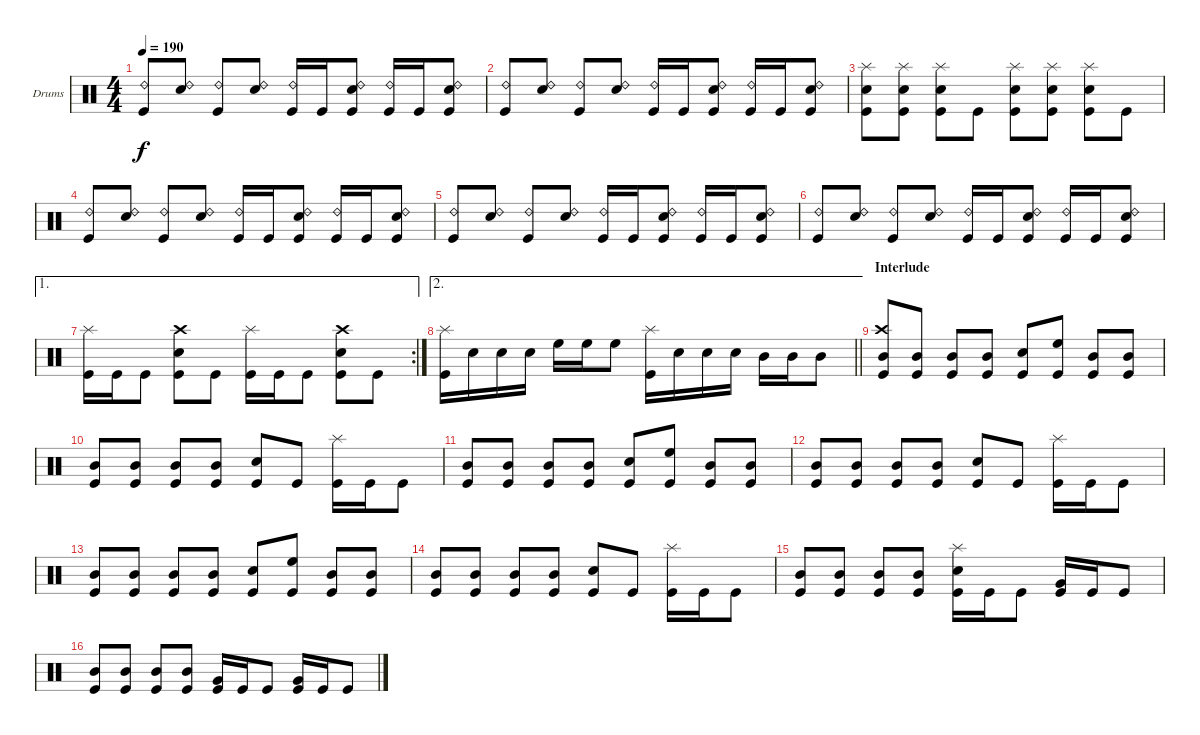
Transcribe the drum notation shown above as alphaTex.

\bracketExtendMode groupsimilarinstruments
\firstSystemTrackNameOrientation horizontal
\otherSystemsTrackNameOrientation horizontal
\track ("Drumkit" "Drums") {instrument percussion}
\staff {score}
\articulation defaults
\ts (4 4)
\tempo 190
\clef neutral
\ks c
("Kick (hit)" "Ride (bell) 2").8{dy f} ("Snare (hit) 2" "Ride (bell) 2").8 ("Kick (hit)" "Ride (bell) 2").8 ("Snare (hit) 2" "Ride (bell) 2").8 ("Kick (hit)" "Ride (bell) 2").16 "Kick (hit)".16 ("Kick (hit)" "Snare (hit) 2" "Ride (bell) 2").8 ("Kick (hit)" "Ride (bell) 2").16 "Kick (hit)".16 ("Kick (hit)" "Snare (hit) 2" "Ride (bell) 2").8 |
("Kick (hit)" "Ride (bell) 2").8 ("Snare (hit) 2" "Ride (bell) 2").8 ("Kick (hit)" "Ride (bell) 2").8 ("Snare (hit) 2" "Ride (bell) 2").8 ("Kick (hit)" "Ride (bell) 2").16 "Kick (hit)".16 ("Kick (hit)" "Snare (hit) 2" "Ride (bell) 2").8 ("Kick (hit)" "Ride (bell) 2").16 "Kick (hit)".16 ("Kick (hit)" "Snare (hit) 2" "Ride (bell) 2").8 |
("Kick (hit)" "Snare (hit) 2" "Splash (hit)").8 ("Kick (hit)" "Snare (hit) 2" "Splash (hit)").8 ("Kick (hit)" "Snare (hit) 2" "Splash (hit)").8 "Kick (hit)".8 ("Kick (hit)" "Snare (hit) 2" "Splash (hit)").8 ("Kick (hit)" "Snare (hit) 2" "Splash (hit)").8 ("Kick (hit)" "Snare (hit) 2" "Splash (hit)").8 "Kick (hit)".8 |
("Kick (hit)" "Ride (bell) 2").8 ("Snare (hit) 2" "Ride (bell) 2").8 ("Kick (hit)" "Ride (bell) 2").8 ("Snare (hit) 2" "Ride (bell) 2").8 ("Kick (hit)" "Ride (bell) 2").16 "Kick (hit)".16 ("Kick (hit)" "Snare (hit) 2" "Ride (bell) 2").8 ("Kick (hit)" "Ride (bell) 2").16 "Kick (hit)".16 ("Kick (hit)" "Snare (hit) 2" "Ride (bell) 2").8 |
("Kick (hit)" "Ride (bell) 2").8 ("Snare (hit) 2" "Ride (bell) 2").8 ("Kick (hit)" "Ride (bell) 2").8 ("Snare (hit) 2" "Ride (bell) 2").8 ("Kick (hit)" "Ride (bell) 2").16 "Kick (hit)".16 ("Kick (hit)" "Snare (hit) 2" "Ride (bell) 2").8 ("Kick (hit)" "Ride (bell) 2").16 "Kick (hit)".16 ("Kick (hit)" "Snare (hit) 2" "Ride (bell) 2").8 |
("Kick (hit)" "Ride (bell) 2").8 ("Snare (hit) 2" "Ride (bell) 2").8 ("Kick (hit)" "Ride (bell) 2").8 ("Snare (hit) 2" "Ride (bell) 2").8 ("Kick (hit)" "Ride (bell) 2").16 "Kick (hit)".16 ("Kick (hit)" "Snare (hit) 2" "Ride (bell) 2").8 ("Kick (hit)" "Ride (bell) 2").16 "Kick (hit)".16 ("Kick (hit)" "Snare (hit) 2" "Ride (bell) 2").8 |
\ae 1
\rc 2
("Kick (hit)" "Splash (hit)").16 "Kick (hit)".16 "Kick (hit)".8 ("Kick (hit)" "Snare (hit) 2" "Crash high (hit)").8 "Kick (hit)".8 ("Kick (hit)" "Splash (hit)").16 "Kick (hit)".16 "Kick (hit)".8 ("Kick (hit)" "Snare (hit) 2" "Crash high (hit)").8 "Kick (hit)".8 |
\ae 2
\barLineRight lightlight
("Kick (hit)" "Splash (hit)").16 "Snare (hit) 2".16 "Snare (hit) 2".16 "Snare (hit) 2".16 "High Floor Tom (hit)".16 "High Floor Tom (hit)".16 "High Floor Tom (hit)".8 ("Kick (hit)" "Splash (hit)").16 "Snare (hit) 2".16 "Snare (hit) 2".16 "Snare (hit) 2".16 "Mid Tom (hit)".16 "Mid Tom (hit)".16 "Mid Tom (hit)".8 |
\section ("" "Interlude")
("Kick (hit)" "Mid Tom (hit)" "Crash high (hit)").8 ("Kick (hit)" "Mid Tom (hit)").8 ("Kick (hit)" "Mid Tom (hit)").8 ("Kick (hit)" "Mid Tom (hit)").8 ("Kick (hit)" "Snare (hit) 2").8 ("Kick (hit)" "High Floor Tom (hit)").8 ("Kick (hit)" "Mid Tom (hit)").8 ("Kick (hit)" "Mid Tom (hit)").8 |
("Kick (hit)" "Mid Tom (hit)").8 ("Kick (hit)" "Mid Tom (hit)").8 ("Kick (hit)" "Mid Tom (hit)").8 ("Kick (hit)" "Mid Tom (hit)").8 ("Kick (hit)" "Snare (hit) 2").8 "Kick (hit)".8 ("Kick (hit)" "Splash (hit)").16 "Kick (hit)".16 "Kick (hit)".8 |
("Kick (hit)" "Mid Tom (hit)").8 ("Kick (hit)" "Mid Tom (hit)").8 ("Kick (hit)" "Mid Tom (hit)").8 ("Kick (hit)" "Mid Tom (hit)").8 ("Kick (hit)" "Snare (hit) 2").8 ("Kick (hit)" "High Floor Tom (hit)").8 ("Kick (hit)" "Mid Tom (hit)").8 ("Kick (hit)" "Mid Tom (hit)").8 |
("Kick (hit)" "Mid Tom (hit)").8 ("Kick (hit)" "Mid Tom (hit)").8 ("Kick (hit)" "Mid Tom (hit)").8 ("Kick (hit)" "Mid Tom (hit)").8 ("Kick (hit)" "Snare (hit) 2").8 "Kick (hit)".8 ("Kick (hit)" "Splash (hit)").16 "Kick (hit)".16 "Kick (hit)".8 |
("Kick (hit)" "Mid Tom (hit)").8 ("Kick (hit)" "Mid Tom (hit)").8 ("Kick (hit)" "Mid Tom (hit)").8 ("Kick (hit)" "Mid Tom (hit)").8 ("Kick (hit)" "Snare (hit) 2").8 ("Kick (hit)" "High Floor Tom (hit)").8 ("Kick (hit)" "Mid Tom (hit)").8 ("Kick (hit)" "Mid Tom (hit)").8 |
("Kick (hit)" "Mid Tom (hit)").8 ("Kick (hit)" "Mid Tom (hit)").8 ("Kick (hit)" "Mid Tom (hit)").8 ("Kick (hit)" "Mid Tom (hit)").8 ("Kick (hit)" "Snare (hit) 2").8 "Kick (hit)".8 ("Kick (hit)" "Splash (hit)").16 "Kick (hit)".16 "Kick (hit)".8 |
("Kick (hit)" "Mid Tom (hit)").8 ("Kick (hit)" "Mid Tom (hit)").8 ("Kick (hit)" "Mid Tom (hit)").8 ("Kick (hit)" "Mid Tom (hit)").8 ("Kick (hit)" "Snare (hit) 2" "Splash (hit)").16 "Kick (hit)".16 "Kick (hit)".8 ("Kick (hit)" "Very Low Tom (hit)").16 "Kick (hit)".16 "Kick (hit)".8 |
("Kick (hit)" "Mid Tom (hit)").8 ("Kick (hit)" "Mid Tom (hit)").8 ("Kick (hit)" "Mid Tom (hit)").8 ("Kick (hit)" "Mid Tom (hit)").8 ("Kick (hit)" "Very Low Tom (hit)").16 "Kick (hit)".16 "Kick (hit)".8 ("Kick (hit)" "Very Low Tom (hit)").16 "Kick (hit)".16 "Kick (hit)".8
